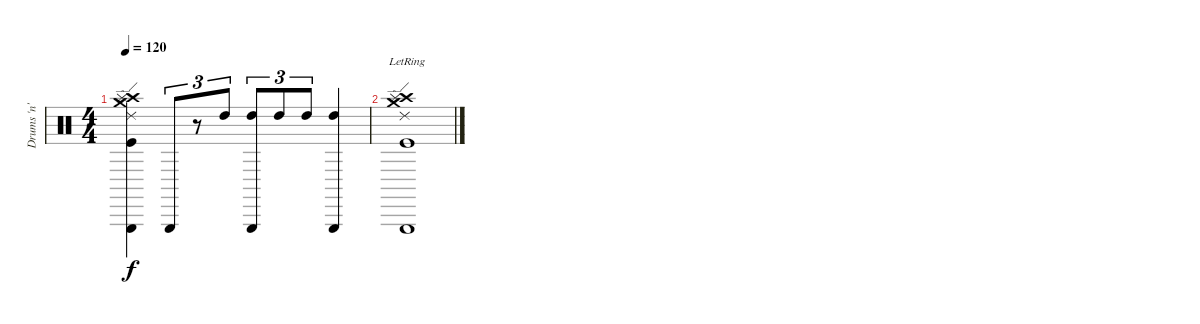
\track ("Drums 'n' Such" "Drums 'n' ") {instrument percussion}
\staff {score}
\articulation defaults
\ts (4 4)
\tempo 120
\clef neutral
\ks c
("Crash high (hit)" "Crash medium (hit)" "Splash (hit)" "Kick (hit)" "Triangle (hit)" "Ride (edge) 2").4{dy f} "Triangle (hit)".8{tu (3 2)} r.8{tu (3 2)} "High Tom (hit)"{tr (48 32)}.8{tu (3 2)} ("Triangle (hit)" "High Tom (hit)").8{tu (3 2)} "High Tom (hit)".8{tu (3 2)} "High Tom (hit)".8{tu (3 2)} ("Triangle (hit)" "High Tom (hit)").4 |
("Crash high (hit)"{lr} "Crash medium (hit)"{lr} "Splash (hit)"{lr} "Kick (hit)"{lr} "Triangle (hit)"{lr} "Ride (edge) 2"{lr}).1
